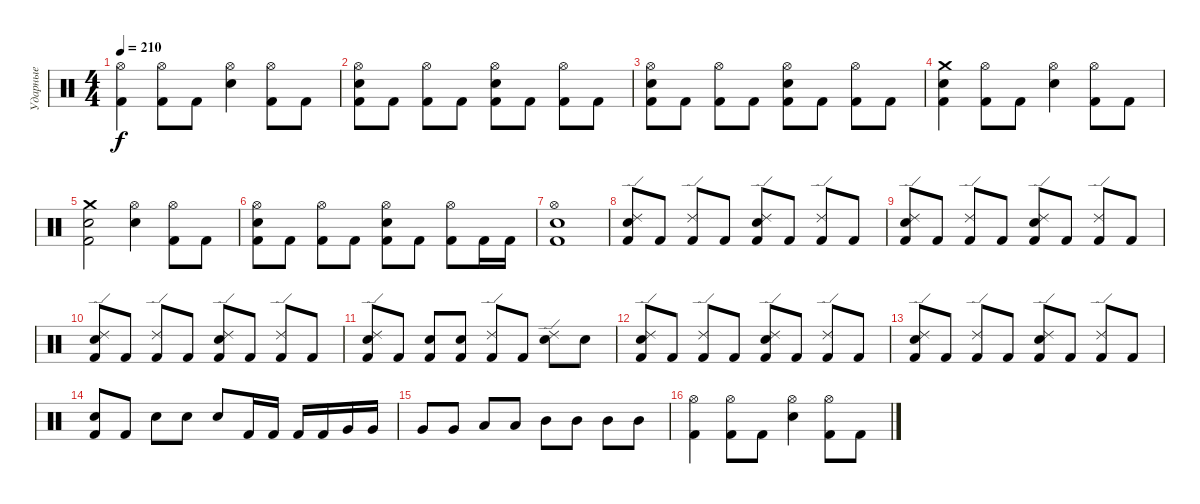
\track ("Ударные" "Ударные") {instrument percussion}
\staff {score}
\articulation defaults
\ts (4 4)
\tempo 210
\clef neutral
\ks c
("Hi-Hat (open)" "Kick (hit) 2").4{dy f} ("Hi-Hat (open)" "Kick (hit) 2").8 "Kick (hit) 2".8 ("Hi-Hat (open)" "Snare (hit) 2").4 ("Hi-Hat (open)" "Kick (hit) 2").8 "Kick (hit) 2".8 |
("Hi-Hat (open)" "Snare (hit) 2" "Kick (hit) 2").8 "Kick (hit) 2".8 ("Hi-Hat (open)" "Kick (hit) 2").8 "Kick (hit) 2".8 ("Hi-Hat (open)" "Snare (hit) 2" "Kick (hit) 2").8 "Kick (hit) 2".8 ("Hi-Hat (open)" "Kick (hit) 2").8 "Kick (hit) 2".8 |
("Hi-Hat (open)" "Snare (hit) 2" "Kick (hit) 2").8 "Kick (hit) 2".8 ("Hi-Hat (open)" "Kick (hit) 2").8 "Kick (hit) 2".8 ("Hi-Hat (open)" "Snare (hit) 2" "Kick (hit) 2").8 "Kick (hit) 2".8 ("Hi-Hat (open)" "Kick (hit) 2").8 "Kick (hit) 2".8 |
("Crash medium (hit)" "Snare (hit) 2" "Kick (hit) 2").4 ("Hi-Hat (open)" "Kick (hit) 2").8 "Kick (hit) 2".8 ("Hi-Hat (open)" "Snare (hit) 2").4 ("Hi-Hat (open)" "Kick (hit) 2").8 "Kick (hit) 2".8 |
("Crash medium (hit)" "Snare (hit) 2" "Kick (hit) 2").2 ("Hi-Hat (open)" "Snare (hit) 2").4 ("Hi-Hat (open)" "Kick (hit) 2").8 "Kick (hit) 2".8 |
("Hi-Hat (open)" "Snare (hit) 2" "Kick (hit) 2").8 "Kick (hit) 2".8 ("Hi-Hat (open)" "Kick (hit) 2").8 "Kick (hit) 2".8 ("Hi-Hat (open)" "Snare (hit) 2" "Kick (hit) 2").8 "Kick (hit) 2".8 ("Hi-Hat (open)" "Kick (hit) 2").8 "Kick (hit) 2".16 "Kick (hit) 2".16 |
("Hi-Hat (open)" "Snare (hit) 2" "Kick (hit) 2").1 |
("Ride (edge) 2" "Snare (hit) 2" "Kick (hit) 2").8 "Kick (hit) 2".8 ("Ride (edge) 2" "Kick (hit) 2").8 "Kick (hit) 2".8 ("Ride (edge) 2" "Snare (hit) 2" "Kick (hit) 2").8 "Kick (hit) 2".8 ("Ride (edge) 2" "Kick (hit) 2").8 "Kick (hit) 2".8 |
("Ride (edge) 2" "Snare (hit) 2" "Kick (hit) 2").8 "Kick (hit) 2".8 ("Ride (edge) 2" "Kick (hit) 2").8 "Kick (hit) 2".8 ("Ride (edge) 2" "Snare (hit) 2" "Kick (hit) 2").8 "Kick (hit) 2".8 ("Ride (edge) 2" "Kick (hit) 2").8 "Kick (hit) 2".8 |
("Ride (edge) 2" "Snare (hit) 2" "Kick (hit) 2").8 "Kick (hit) 2".8 ("Ride (edge) 2" "Kick (hit) 2").8 "Kick (hit) 2".8 ("Ride (edge) 2" "Snare (hit) 2" "Kick (hit) 2").8 "Kick (hit) 2".8 ("Ride (edge) 2" "Kick (hit) 2").8 "Kick (hit) 2".8 |
("Ride (edge) 2" "Snare (hit) 2" "Kick (hit) 2").8 "Kick (hit) 2".8 ("Snare (hit) 2" "Kick (hit) 2").8 ("Snare (hit) 2" "Kick (hit) 2").8 ("Ride (edge) 2" "Kick (hit) 2").8 "Kick (hit) 2".8 ("Ride (edge) 2" "Snare (hit) 2").8 "Snare (hit) 2".8 |
("Ride (edge) 2" "Snare (hit) 2" "Kick (hit) 2").8 "Kick (hit) 2".8 ("Ride (edge) 2" "Kick (hit) 2").8 "Kick (hit) 2".8 ("Ride (edge) 2" "Snare (hit) 2" "Kick (hit) 2").8 "Kick (hit) 2".8 ("Ride (edge) 2" "Kick (hit) 2").8 "Kick (hit) 2".8 |
("Ride (edge) 2" "Snare (hit) 2" "Kick (hit) 2").8 "Kick (hit) 2".8 ("Ride (edge) 2" "Kick (hit) 2").8 "Kick (hit) 2".8 ("Ride (edge) 2" "Snare (hit) 2" "Kick (hit) 2").8 "Kick (hit) 2".8 ("Ride (edge) 2" "Kick (hit) 2").8 "Kick (hit) 2".8 |
("Snare (hit) 2" "Kick (hit) 2").8 "Kick (hit) 2".8 "Snare (hit) 2".8 "Snare (hit) 2".8 "Snare (hit) 2".8 "Kick (hit) 2".16 "Kick (hit) 2".16 "Kick (hit) 2".16 "Kick (hit) 2".16 "Very Low Tom (hit)".16 "Very Low Tom (hit)".16 |
"Very Low Tom (hit)".8 "Very Low Tom (hit)".8 "Low Tom (hit)".8 "Low Tom (hit)".8 "Mid Tom (hit)".8 "Mid Tom (hit)".8 "Mid Tom (hit)".8 "Mid Tom (hit)".8 |
("Hi-Hat (open)" "Kick (hit) 2").4 ("Hi-Hat (open)" "Kick (hit) 2").8 "Kick (hit) 2".8 ("Hi-Hat (open)" "Snare (hit) 2").4 ("Hi-Hat (open)" "Kick (hit) 2").8 "Kick (hit) 2".8
